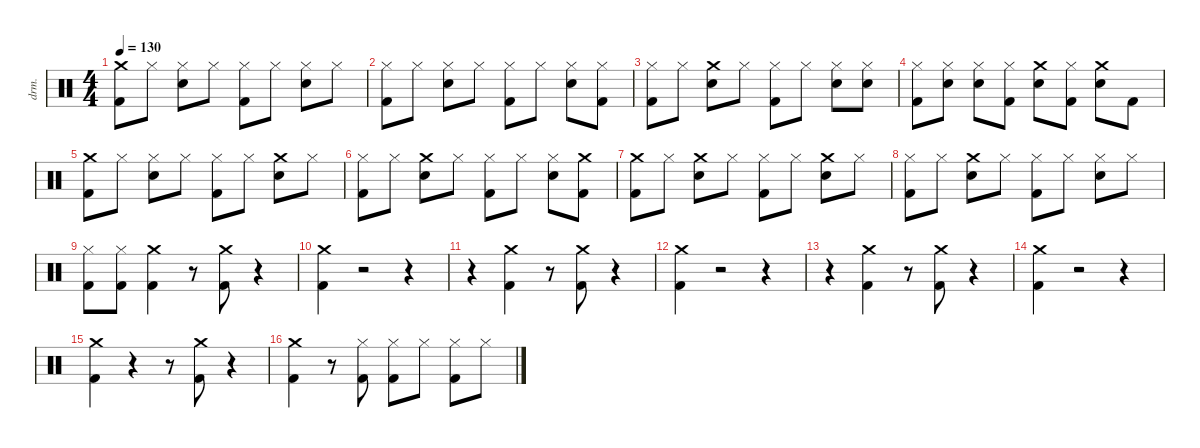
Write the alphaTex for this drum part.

\defaultSystemsLayout 4
\hideDynamics
\bracketExtendMode nobrackets
\otherSystemsTrackNameOrientation horizontal
\track ("Lars Ulrich (Drums)" "drm.") {instrument percussion}
\staff {score}
\articulation defaults
\ts (4 4)
\tempo 130
\clef neutral
\ks c
("Crash medium (hit)" "Kick (hit) 2").8{dy f beam Down} "Hi-Hat (closed)".8{beam Down} ("Snare (hit) 2" "Hi-Hat (closed)").8{beam Down} "Hi-Hat (closed)".8{beam Down} ("Kick (hit) 2" "Hi-Hat (closed)").8{beam Down} "Hi-Hat (closed)".8{beam Down} ("Snare (hit) 2" "Hi-Hat (closed)").8{beam Down} "Hi-Hat (closed)".8{beam Down} |
("Kick (hit) 2" "Hi-Hat (closed)").8{beam Down} "Hi-Hat (closed)".8{beam Down} ("Snare (hit) 2" "Hi-Hat (closed)").8{beam Down} "Hi-Hat (closed)".8{beam Down} ("Kick (hit) 2" "Hi-Hat (closed)").8{beam Down} "Hi-Hat (closed)".8{beam Down} ("Snare (hit) 2" "Hi-Hat (closed)").8{beam Down} ("Kick (hit) 2" "Hi-Hat (closed)").8{beam Down} |
("Kick (hit) 2" "Hi-Hat (closed)").8{beam Down} "Hi-Hat (closed)".8{beam Down} ("Crash medium (hit)" "Snare (hit) 2").8{beam Down} "Hi-Hat (closed)".8{beam Down} ("Kick (hit) 2" "Hi-Hat (closed)").8{beam Down} "Hi-Hat (closed)".8{beam Down} ("Snare (hit) 2" "Hi-Hat (closed)").8{beam Down} ("Snare (hit) 2" "Hi-Hat (closed)").8{beam Down} |
("Kick (hit) 2" "Hi-Hat (closed)").8{beam Down} ("Snare (hit) 2" "Hi-Hat (closed)").8{beam Down} ("Snare (hit) 2" "Hi-Hat (closed)").8{beam Down} ("Kick (hit) 2" "Hi-Hat (closed)").8{beam Down} ("Crash medium (hit)" "Snare (hit) 2").8{beam Down} ("Kick (hit) 2" "Hi-Hat (closed)").8{beam Down} ("Crash medium (hit)" "Snare (hit) 2").8{beam Down} "Kick (hit) 2".8{beam Down} |
("Crash medium (hit)" "Kick (hit) 2").8{beam Down} "Hi-Hat (closed)".8{beam Down} ("Snare (hit) 2" "Hi-Hat (closed)").8{beam Down} "Hi-Hat (closed)".8{beam Down} ("Kick (hit) 2" "Hi-Hat (closed)").8{beam Down} "Hi-Hat (closed)".8{beam Down} ("Crash medium (hit)" "Snare (hit) 2").8{beam Down} "Hi-Hat (closed)".8{beam Down} |
("Kick (hit) 2" "Hi-Hat (closed)").8{beam Down} "Hi-Hat (closed)".8{beam Down} ("Crash medium (hit)" "Snare (hit) 2").8{beam Down} "Hi-Hat (closed)".8{beam Down} ("Kick (hit) 2" "Hi-Hat (closed)").8{beam Down} "Hi-Hat (closed)".8{beam Down} ("Snare (hit) 2" "Hi-Hat (closed)").8{beam Down} ("Crash medium (hit)" "Kick (hit) 2").8{beam Down} |
("Crash medium (hit)" "Kick (hit) 2").8{beam Down} "Hi-Hat (closed)".8{beam Down} ("Crash medium (hit)" "Snare (hit) 2").8{beam Down} "Hi-Hat (closed)".8{beam Down} ("Kick (hit) 2" "Hi-Hat (closed)").8{beam Down} "Hi-Hat (closed)".8{beam Down} ("Crash medium (hit)" "Snare (hit) 2").8{beam Down} "Hi-Hat (closed)".8{beam Down} |
("Hi-Hat (closed)" "Kick (hit) 2").8{beam Down} "Hi-Hat (closed)".8{beam Down} ("Crash medium (hit)" "Snare (hit) 2").8{beam Down} "Hi-Hat (closed)".8{beam Down} ("Hi-Hat (closed)" "Kick (hit) 2").8{beam Down} "Hi-Hat (closed)".8{beam Down} ("Snare (hit) 2" "Hi-Hat (closed)").8{beam Down} "Hi-Hat (closed)".8{beam Down} |
("Kick (hit) 2" "Hi-Hat (closed)").8{beam Down} ("Kick (hit) 2" "Hi-Hat (closed)").8{beam Down} ("Kick (hit) 2" "Crash medium (hit)").4{beam Down} r.8{beam Down} ("Kick (hit) 2" "Crash medium (hit)").8{beam Down} r.4{beam Down} |
("Crash medium (hit)" "Kick (hit) 2").4{beam Down} r.2{beam Down} r.4{beam Down} |
r.4{beam Down} ("Kick (hit) 2" "Crash medium (hit)").4{beam Down} r.8{beam Down} ("Kick (hit) 2" "Crash medium (hit)").8{beam Down} r.4{beam Down} |
("Crash medium (hit)" "Kick (hit) 2").4{beam Down} r.2{beam Down} r.4{beam Down} |
r.4{beam Down} ("Kick (hit) 2" "Crash medium (hit)").4{beam Down} r.8{beam Down} ("Kick (hit) 2" "Crash medium (hit)").8{beam Down} r.4{beam Down} |
("Kick (hit) 2" "Crash medium (hit)").4{beam Down} r.2{beam Down} r.4{beam Down} |
("Kick (hit) 2" "Crash medium (hit)").4{beam Down} r.4{beam Down} r.8{beam Down} ("Kick (hit) 2" "Crash medium (hit)").8{beam Down} r.4{beam Down} |
("Crash medium (hit)" "Kick (hit) 2").4{beam Down} r.8{beam Down} ("Hi-Hat (closed)" "Kick (hit) 2").8{beam Down} ("Hi-Hat (closed)" "Kick (hit) 2").8{beam Down} "Hi-Hat (closed)".8{beam Down} ("Hi-Hat (closed)" "Kick (hit) 2").8{beam Down} "Hi-Hat (closed)".8{beam Down}
